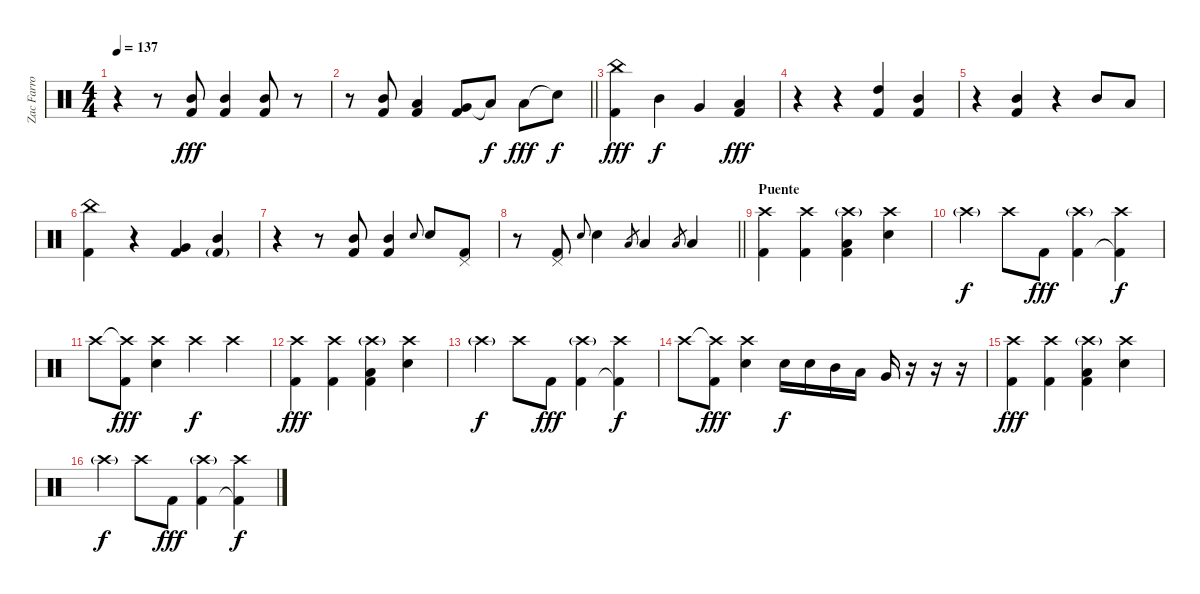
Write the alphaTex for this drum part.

\track ("Zac Farro" "Zac Farro") {instrument percussion}
\staff
\articulation defaults
\ts (4 4)
\tempo 137
\clef neutral
\ks c
r.4{dy fff} r.8 ("Mid Tom (hit)" "Kick (hit) 2").8 ("Mid Tom (hit)" "Kick (hit) 2").4 ("Mid Tom (hit)" "Kick (hit) 2").8 r.8 |
\barLineRight lightlight
r.8 ("Mid Tom (hit)" "Kick (hit) 2").8 ("Low Tom (hit)" "Kick (hit) 2").4 ("Very Low Tom (hit)" "Kick (hit) 2").8 "Low Floor Tom (hit)"{t}.8{dy f} "Low Floor Tom (hit)".8{dy fff} "Snare (hit)"{t}.8{dy f} |
("China (hit)" "Kick (hit) 2").4{dy fff} "Mid Tom (hit)".4{dy f} "Very Low Tom (hit)".4 ("Low Floor Tom (hit)" "Kick (hit) 2").4{dy fff} |
r.4 r.4 ("High Tom (hit)" "Kick (hit) 2").4 ("Mid Tom (hit)" "Kick (hit) 2").4 |
r.4 ("Mid Tom (hit)" "Kick (hit) 2").4 r.4 "Mid Tom (hit)".8 "Low Tom (hit)".8 |
("China (hit)" "Kick (hit) 2").4 r.4 ("Very Low Tom (hit)" "Kick (hit) 2").4 ("Mid Tom (hit)" "Kick (hit) 2"{g}).4 |
r.4 r.8 ("Mid Tom (hit)" "Kick (hit) 2").8 ("Mid Tom (hit)" "Kick (hit) 2").4 "Electric Snare (hit)".8{gr onbeat} "Electric Snare (hit)".8 ("Pedal Hi-Hat (hit)" "Kick (hit) 2").8 |
\barLineRight lightlight
r.8 ("Pedal Hi-Hat (hit)" "Kick (hit) 2").8 "Electric Snare (hit)".8{gr onbeat} "Electric Snare (hit)".4 "Low Tom (hit)".8{gr} "Low Tom (hit)".4 "Low Floor Tom (hit)".8{gr} "Low Floor Tom (hit)".4 |
\section ("" "Puente")
("Crash high (hit)" "Kick (hit) 2").4 ("Crash high (hit)" "Kick (hit) 2").4 ("Crash high (hit)"{g} "Low Floor Tom (hit)" "Kick (hit) 2").4 ("Crash high (hit)" "Electric Snare (hit)").4 |
"Crash high (hit)"{g}.4{dy f} "Crash high (hit)".8 "Kick (hit) 2".8{dy fff} ("Crash high (hit)"{g} "Kick (hit) 2").4 ("Crash high (hit)" "Kick (hit) 2"{t}).4{dy f} |
"Crash high (hit)".8 ("Crash high (hit)"{t} "Kick (hit) 2").8{dy fff} ("Crash high (hit)" "Electric Snare (hit)").4 "Crash high (hit)".4{dy f} "Crash high (hit)".4 |
("Crash high (hit)" "Kick (hit) 2").4{dy fff} ("Crash high (hit)" "Kick (hit) 2").4 ("Crash high (hit)"{g} "Low Floor Tom (hit)" "Kick (hit) 2").4 ("Crash high (hit)" "Electric Snare (hit)").4 |
"Crash high (hit)"{g}.4{dy f} "Crash high (hit)".8 "Kick (hit) 2".8{dy fff} ("Crash high (hit)"{g} "Kick (hit) 2").4 ("Crash high (hit)" "Kick (hit) 2"{t}).4{dy f} |
"Crash high (hit)".8 ("Crash high (hit)"{t} "Kick (hit) 2").8{dy fff} ("Crash high (hit)" "Electric Snare (hit)").4 "Electric Snare (hit)".16{dy f} "Electric Snare (hit)".16 "Mid Tom (hit)".16 "Low Tom (hit)".16 "Very Low Tom (hit)".16 r.16 r.16 r.16 |
("Crash high (hit)" "Kick (hit) 2").4{dy fff} ("Crash high (hit)" "Kick (hit) 2").4 ("Crash high (hit)"{g} "Low Floor Tom (hit)" "Kick (hit) 2").4 ("Crash high (hit)" "Electric Snare (hit)").4 |
"Crash high (hit)"{g}.4{dy f} "Crash high (hit)".8 "Kick (hit) 2".8{dy fff} ("Crash high (hit)"{g} "Kick (hit) 2").4 ("Crash high (hit)" "Kick (hit) 2"{t}).4{dy f}
